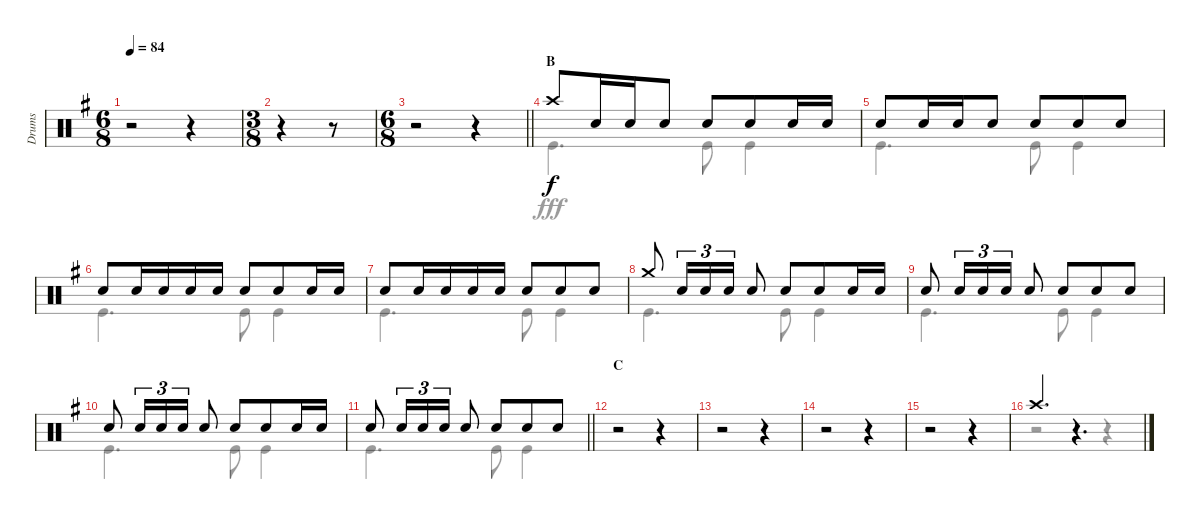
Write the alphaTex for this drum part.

\track ("Drums" "Drums") {instrument percussion}
\staff {score}
\articulation defaults
\voice
\ts (6 8)
\tempo 84
\clef neutral
\ks g
r.2{dy f} r.4 |
\ts (3 8)
r.4 r.8 |
\ts (6 8)
\barLineRight lightlight
r.2 r.4 |
\section ("" "B")
"Crash high (hit)".8 "Snare (hit) 2".16 "Snare (hit) 2".16 "Snare (hit) 2".8 "Snare (hit) 2".8 "Snare (hit) 2".8 "Snare (hit) 2".16 "Snare (hit) 2".16 |
"Snare (hit) 2".8 "Snare (hit) 2".16 "Snare (hit) 2".16 "Snare (hit) 2".8 "Snare (hit) 2".8 "Snare (hit) 2".8 "Snare (hit) 2".8 |
"Snare (hit) 2".8 "Snare (hit) 2".16 "Snare (hit) 2".16 "Snare (hit) 2".16 "Snare (hit) 2".16 "Snare (hit) 2".8 "Snare (hit) 2".8 "Snare (hit) 2".16 "Snare (hit) 2".16 |
"Snare (hit) 2".8 "Snare (hit) 2".16 "Snare (hit) 2".16 "Snare (hit) 2".16 "Snare (hit) 2".16 "Snare (hit) 2".8 "Snare (hit) 2".8 "Snare (hit) 2".8 |
"Crash medium (hit)".8 "Snare (hit) 2".16{tu (3 2)} "Snare (hit) 2".16{tu (3 2)} "Snare (hit) 2".16{tu (3 2)} "Snare (hit) 2".8 "Snare (hit) 2".8 "Snare (hit) 2".8 "Snare (hit) 2".16 "Snare (hit) 2".16 |
"Snare (hit) 2".8 "Snare (hit) 2".16{tu (3 2)} "Snare (hit) 2".16{tu (3 2)} "Snare (hit) 2".16{tu (3 2)} "Snare (hit) 2".8 "Snare (hit) 2".8 "Snare (hit) 2".8 "Snare (hit) 2".8 |
"Snare (hit) 2".8 "Snare (hit) 2".16{tu (3 2)} "Snare (hit) 2".16{tu (3 2)} "Snare (hit) 2".16{tu (3 2)} "Snare (hit) 2".8 "Snare (hit) 2".8 "Snare (hit) 2".8 "Snare (hit) 2".16 "Snare (hit) 2".16 |
\barLineRight lightlight "Snare (hit) 2".8 "Snare (hit) 2".16{tu (3 2)} "Snare (hit) 2".16{tu (3 2)} "Snare (hit) 2".16{tu (3 2)} "Snare (hit) 2".8 "Snare (hit) 2".8 "Snare (hit) 2".8 "Snare (hit) 2".8
|
\section ("" "C")
r.2 r.4 |
r.2 r.4 |
r.2 r.4 |
r.2 r.4 |
"Crash high (hit)".4{d} r.4{d}
\voice
\clef neutral
\ottava regular
\simile none
\ks g
r.2{dy fff} r.4 |
r.4 r.8 |
\barLineRight lightlight
r.2 r.4 |
"Kick (hit)".4{d} "Kick (hit)".8 "Kick (hit)".4 |
"Kick (hit)".4{d} "Kick (hit)".8 "Kick (hit)".4 |
"Kick (hit)".4{d} "Kick (hit)".8 "Kick (hit)".4 |
"Kick (hit)".4{d} "Kick (hit)".8 "Kick (hit)".4 |
"Kick (hit)".4{d} "Kick (hit)".8 "Kick (hit)".4 |
"Kick (hit)".4{d} "Kick (hit)".8 "Kick (hit)".4 |
"Kick (hit)".4{d} "Kick (hit)".8 "Kick (hit)".4 |
\barLineRight lightlight "Kick (hit)".4{d} "Kick (hit)".8 "Kick (hit)".4
|
r.2 r.4 |
r.2 r.4 |
r.2 r.4 |
r.2 r.4 |
r.2 r.4
